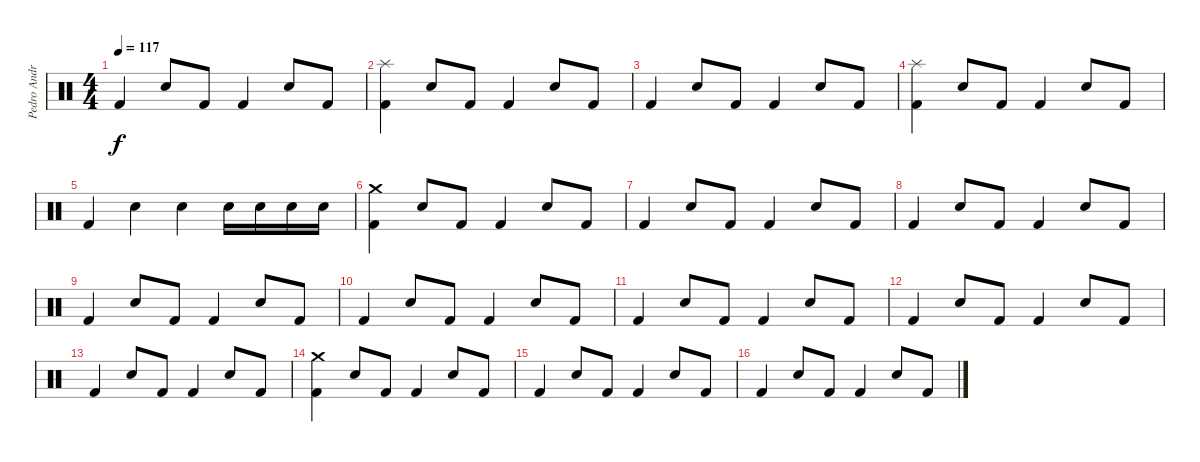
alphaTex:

\track ("Pedro Andreu - Batería" "Pedro Andr") {instrument percussion}
\staff {score}
\articulation defaults
\ts (4 4)
\tempo 117
\clef neutral
\ks c "Kick (hit) 2".4{dy f} "Snare (hit) 2".8 "Kick (hit) 2".8 "Kick (hit) 2".4 "Snare (hit) 2".8 "Kick (hit) 2".8
|
("Splash (hit)" "Kick (hit) 2").4 "Snare (hit) 2".8 "Kick (hit) 2".8 "Kick (hit) 2".4 "Snare (hit) 2".8 "Kick (hit) 2".8 |
"Kick (hit) 2".4 "Snare (hit) 2".8 "Kick (hit) 2".8 "Kick (hit) 2".4 "Snare (hit) 2".8 "Kick (hit) 2".8 |
("Splash (hit)" "Kick (hit) 2").4 "Snare (hit) 2".8 "Kick (hit) 2".8 "Kick (hit) 2".4 "Snare (hit) 2".8 "Kick (hit) 2".8 |
"Kick (hit) 2".4 "Snare (hit) 2".4 "Snare (hit) 2".4 "Snare (hit) 2".16 "Snare (hit) 2".16 "Snare (hit) 2".16 "Snare (hit) 2".16 |
("Crash medium (hit)" "Kick (hit) 2").4 "Snare (hit) 2".8 "Kick (hit) 2".8 "Kick (hit) 2".4 "Snare (hit) 2".8 "Kick (hit) 2".8 |
"Kick (hit) 2".4 "Snare (hit) 2".8 "Kick (hit) 2".8 "Kick (hit) 2".4 "Snare (hit) 2".8 "Kick (hit) 2".8 |
"Kick (hit) 2".4 "Snare (hit) 2".8 "Kick (hit) 2".8 "Kick (hit) 2".4 "Snare (hit) 2".8 "Kick (hit) 2".8 |
"Kick (hit) 2".4 "Snare (hit) 2".8 "Kick (hit) 2".8 "Kick (hit) 2".4 "Snare (hit) 2".8 "Kick (hit) 2".8 |
"Kick (hit) 2".4 "Snare (hit) 2".8 "Kick (hit) 2".8 "Kick (hit) 2".4 "Snare (hit) 2".8 "Kick (hit) 2".8 |
"Kick (hit) 2".4 "Snare (hit) 2".8 "Kick (hit) 2".8 "Kick (hit) 2".4 "Snare (hit) 2".8 "Kick (hit) 2".8 |
"Kick (hit) 2".4 "Snare (hit) 2".8 "Kick (hit) 2".8 "Kick (hit) 2".4 "Snare (hit) 2".8 "Kick (hit) 2".8 |
"Kick (hit) 2".4 "Snare (hit) 2".8 "Kick (hit) 2".8 "Kick (hit) 2".4 "Snare (hit) 2".8 "Kick (hit) 2".8 |
("Kick (hit) 2" "Crash medium (hit)").4 "Snare (hit) 2".8 "Kick (hit) 2".8 "Kick (hit) 2".4 "Snare (hit) 2".8 "Kick (hit) 2".8 |
"Kick (hit) 2".4 "Snare (hit) 2".8 "Kick (hit) 2".8 "Kick (hit) 2".4 "Snare (hit) 2".8 "Kick (hit) 2".8 |
"Kick (hit) 2".4 "Snare (hit) 2".8 "Kick (hit) 2".8 "Kick (hit) 2".4 "Snare (hit) 2".8 "Kick (hit) 2".8
